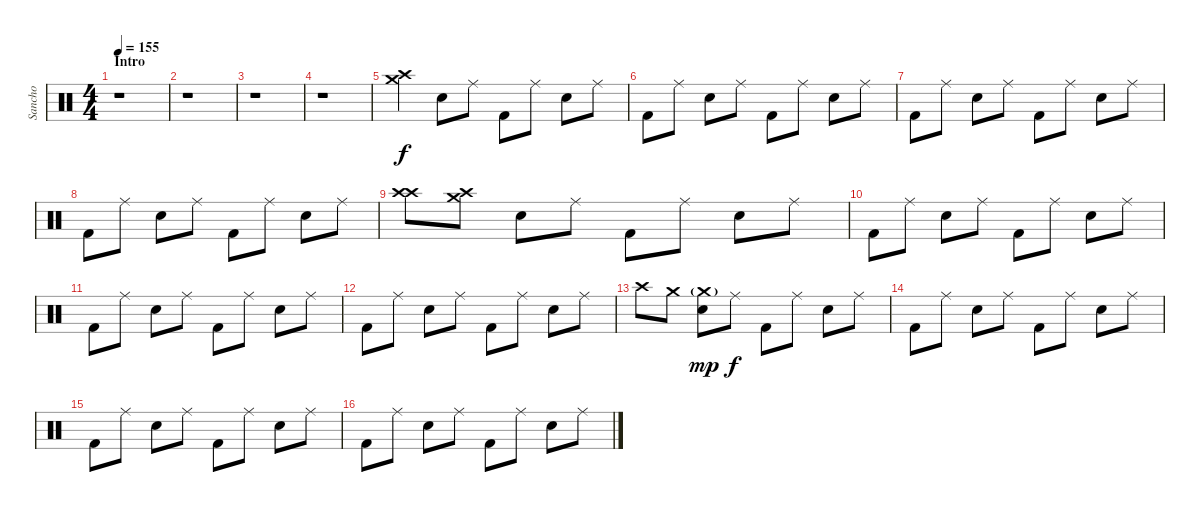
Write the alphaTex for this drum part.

\track ("Sancho" "Sancho") {instrument percussion}
\staff {score}
\articulation defaults
\ts (4 4)
\section ("" "Intro")
\tempo 155
\clef neutral
\ks c
r.1{dy f} |
r.1 |
r.1 |
r.1 |
("Crash high (hit)" "Crash medium (hit)").4 "Electric Snare (hit)".8 "Ride (middle)".8 "Kick (hit) 2".8 "Ride (middle)".8 "Electric Snare (hit)".8 "Ride (middle)".8 |
"Kick (hit) 2".8 "Ride (middle)".8 "Electric Snare (hit)".8 "Ride (middle)".8 "Kick (hit) 2".8 "Ride (middle)".8 "Electric Snare (hit)".8 "Ride (middle)".8 |
"Kick (hit) 2".8 "Ride (middle)".8 "Electric Snare (hit)".8 "Ride (middle)".8 "Kick (hit) 2".8 "Ride (middle)".8 "Electric Snare (hit)".8 "Ride (middle)".8 |
"Kick (hit) 2".8 "Ride (middle)".8 "Electric Snare (hit)".8 "Ride (middle)".8 "Kick (hit) 2".8 "Ride (middle)".8 "Electric Snare (hit)".8 "Ride (middle)".8 |
("Crash high (hit)" "Crash high (hit)").8 ("Crash high (hit)" "Crash medium (hit)").8 "Electric Snare (hit)".8 "Ride (middle)".8 "Kick (hit) 2".8 "Ride (middle)".8 "Electric Snare (hit)".8 "Ride (middle)".8 |
"Kick (hit) 2".8 "Ride (middle)".8 "Electric Snare (hit)".8 "Ride (middle)".8 "Kick (hit) 2".8 "Ride (middle)".8 "Electric Snare (hit)".8 "Ride (middle)".8 |
"Kick (hit) 2".8 "Ride (middle)".8 "Electric Snare (hit)".8 "Ride (middle)".8 "Kick (hit) 2".8 "Ride (middle)".8 "Electric Snare (hit)".8 "Ride (middle)".8 |
"Kick (hit) 2".8 "Ride (middle)".8 "Electric Snare (hit)".8 "Ride (middle)".8 "Kick (hit) 2".8 "Ride (middle)".8 "Electric Snare (hit)".8 "Ride (middle)".8 |
"Crash high (hit)".8 "Crash medium (hit)".8 ("Crash medium (hit)"{g} "Electric Snare (hit)").8{dy mp} "Ride (middle)".8{dy f} "Kick (hit) 2".8 "Ride (middle)".8 "Electric Snare (hit)".8 "Ride (middle)".8 |
"Kick (hit) 2".8 "Ride (middle)".8 "Electric Snare (hit)".8 "Ride (middle)".8 "Kick (hit) 2".8 "Ride (middle)".8 "Electric Snare (hit)".8 "Ride (middle)".8 |
"Kick (hit) 2".8 "Ride (middle)".8 "Electric Snare (hit)".8 "Ride (middle)".8 "Kick (hit) 2".8 "Ride (middle)".8 "Electric Snare (hit)".8 "Ride (middle)".8 |
"Kick (hit) 2".8 "Ride (middle)".8 "Electric Snare (hit)".8 "Ride (middle)".8 "Kick (hit) 2".8 "Ride (middle)".8 "Electric Snare (hit)".8 "Ride (middle)".8
